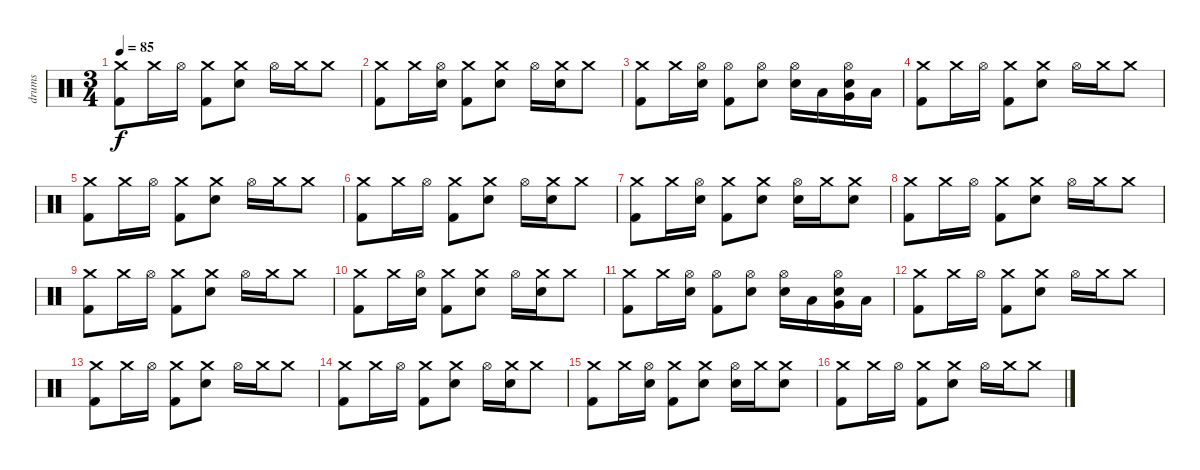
\track ("drums" "drums") {instrument percussion}
\staff {score}
\articulation defaults
\ts (3 4)
\tempo 85
\clef neutral
\ks c
("Crash medium (hit)" "Kick (hit) 2").8{dy f} "Crash medium (hit)".16 "Hi-Hat (open)".16 ("Kick (hit) 2" "Crash medium (hit)").8 ("Snare (hit) 2" "Crash medium (hit)").8 "Hi-Hat (open)".16 "Crash medium (hit)".16 "Crash medium (hit)".8 |
("Crash medium (hit)" "Kick (hit) 2").8 "Crash medium (hit)".16 ("Snare (hit) 2" "Hi-Hat (open)").16 ("Kick (hit) 2" "Crash medium (hit)").8 ("Snare (hit) 2" "Crash medium (hit)").8 "Hi-Hat (open)".16 ("Snare (hit) 2" "Crash medium (hit)").16 "Crash medium (hit)".8 |
("Crash medium (hit)" "Kick (hit) 2").8 "Crash medium (hit)".16 ("Snare (hit) 2" "Hi-Hat (open)").16 ("Kick (hit) 2" "Hi-Hat (open)").8 ("Snare (hit) 2" "Hi-Hat (open)").8 ("Snare (hit) 2" "Hi-Hat (open)").16 "Low Floor Tom (hit)".16 ("Snare (hit) 2" "Very Low Tom (hit)" "Hi-Hat (open)").16 "Low Floor Tom (hit)".16 |
("Crash medium (hit)" "Kick (hit) 2").8 "Crash medium (hit)".16 "Hi-Hat (open)".16 ("Kick (hit) 2" "Crash medium (hit)").8 ("Snare (hit) 2" "Crash medium (hit)").8 "Hi-Hat (open)".16 "Crash medium (hit)".16 "Crash medium (hit)".8 |
("Crash medium (hit)" "Kick (hit) 2").8 "Crash medium (hit)".16 "Hi-Hat (open)".16 ("Kick (hit) 2" "Crash medium (hit)").8 ("Snare (hit) 2" "Crash medium (hit)").8 "Hi-Hat (open)".16 "Crash medium (hit)".16 "Crash medium (hit)".8 |
("Crash medium (hit)" "Kick (hit) 2").8 "Crash medium (hit)".16 "Hi-Hat (open)".16 ("Kick (hit) 2" "Crash medium (hit)").8 ("Snare (hit) 2" "Crash medium (hit)").8 "Hi-Hat (open)".16 ("Snare (hit) 2" "Crash medium (hit)").16 "Crash medium (hit)".8 |
("Crash medium (hit)" "Kick (hit) 2").8 "Crash medium (hit)".16 ("Snare (hit) 2" "Hi-Hat (open)").16 ("Kick (hit) 2" "Crash medium (hit)").8 ("Snare (hit) 2" "Crash medium (hit)").8 ("Snare (hit) 2" "Hi-Hat (open)").16 "Crash medium (hit)".16 ("Snare (hit) 2" "Crash medium (hit)").8 |
("Crash medium (hit)" "Kick (hit) 2").8 "Crash medium (hit)".16 "Hi-Hat (open)".16 ("Kick (hit) 2" "Crash medium (hit)").8 ("Snare (hit) 2" "Crash medium (hit)").8 "Hi-Hat (open)".16 "Crash medium (hit)".16 "Crash medium (hit)".8 |
("Crash medium (hit)" "Kick (hit) 2").8 "Crash medium (hit)".16 "Hi-Hat (open)".16 ("Kick (hit) 2" "Crash medium (hit)").8 ("Snare (hit) 2" "Crash medium (hit)").8 "Hi-Hat (open)".16 "Crash medium (hit)".16 "Crash medium (hit)".8 |
("Crash medium (hit)" "Kick (hit) 2").8 "Crash medium (hit)".16 ("Snare (hit) 2" "Hi-Hat (open)").16 ("Kick (hit) 2" "Crash medium (hit)").8 ("Snare (hit) 2" "Crash medium (hit)").8 "Hi-Hat (open)".16 ("Snare (hit) 2" "Crash medium (hit)").16 "Crash medium (hit)".8 |
("Crash medium (hit)" "Kick (hit) 2").8 "Crash medium (hit)".16 ("Snare (hit) 2" "Hi-Hat (open)").16 ("Kick (hit) 2" "Hi-Hat (open)").8 ("Snare (hit) 2" "Hi-Hat (open)").8 ("Snare (hit) 2" "Hi-Hat (open)").16 "Low Floor Tom (hit)".16 ("Snare (hit) 2" "Very Low Tom (hit)" "Hi-Hat (open)").16 "Low Floor Tom (hit)".16 |
("Crash medium (hit)" "Kick (hit) 2").8 "Crash medium (hit)".16 "Hi-Hat (open)".16 ("Kick (hit) 2" "Crash medium (hit)").8 ("Snare (hit) 2" "Crash medium (hit)").8 "Hi-Hat (open)".16 "Crash medium (hit)".16 "Crash medium (hit)".8 |
("Crash medium (hit)" "Kick (hit) 2").8 "Crash medium (hit)".16 "Hi-Hat (open)".16 ("Kick (hit) 2" "Crash medium (hit)").8 ("Snare (hit) 2" "Crash medium (hit)").8 "Hi-Hat (open)".16 "Crash medium (hit)".16 "Crash medium (hit)".8 |
("Crash medium (hit)" "Kick (hit) 2").8 "Crash medium (hit)".16 "Hi-Hat (open)".16 ("Kick (hit) 2" "Crash medium (hit)").8 ("Snare (hit) 2" "Crash medium (hit)").8 "Hi-Hat (open)".16 ("Snare (hit) 2" "Crash medium (hit)").16 "Crash medium (hit)".8 |
("Crash medium (hit)" "Kick (hit) 2").8 "Crash medium (hit)".16 ("Snare (hit) 2" "Hi-Hat (open)").16 ("Kick (hit) 2" "Crash medium (hit)").8 ("Snare (hit) 2" "Crash medium (hit)").8 ("Snare (hit) 2" "Hi-Hat (open)").16 "Crash medium (hit)".16 ("Snare (hit) 2" "Crash medium (hit)").8 |
("Crash medium (hit)" "Kick (hit) 2").8 "Crash medium (hit)".16 "Hi-Hat (open)".16 ("Kick (hit) 2" "Crash medium (hit)").8 ("Snare (hit) 2" "Crash medium (hit)").8 "Hi-Hat (open)".16 "Crash medium (hit)".16 "Crash medium (hit)".8
